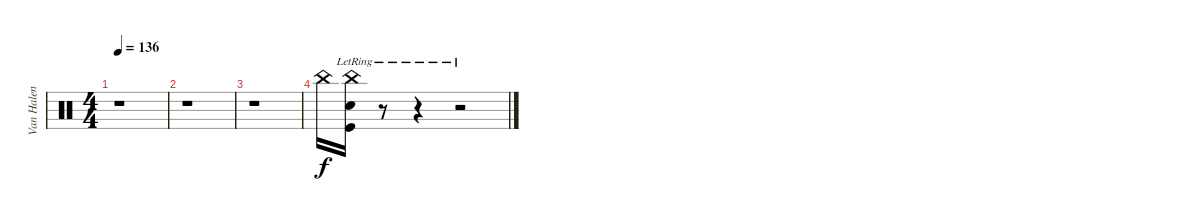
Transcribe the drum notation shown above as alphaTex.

\track ("Van Halen" "Van Halen") {instrument percussion}
\staff {score}
\articulation defaults
\ts (4 4)
\tempo 136
\clef neutral
\ks c
r.1{dy f} |
r.1 |
r.1 |
"China (hit)".16 ("Kick (hit)" "Snare (hit) 2" "China (hit)"{lr}).16 r.8 r.4 r.2
